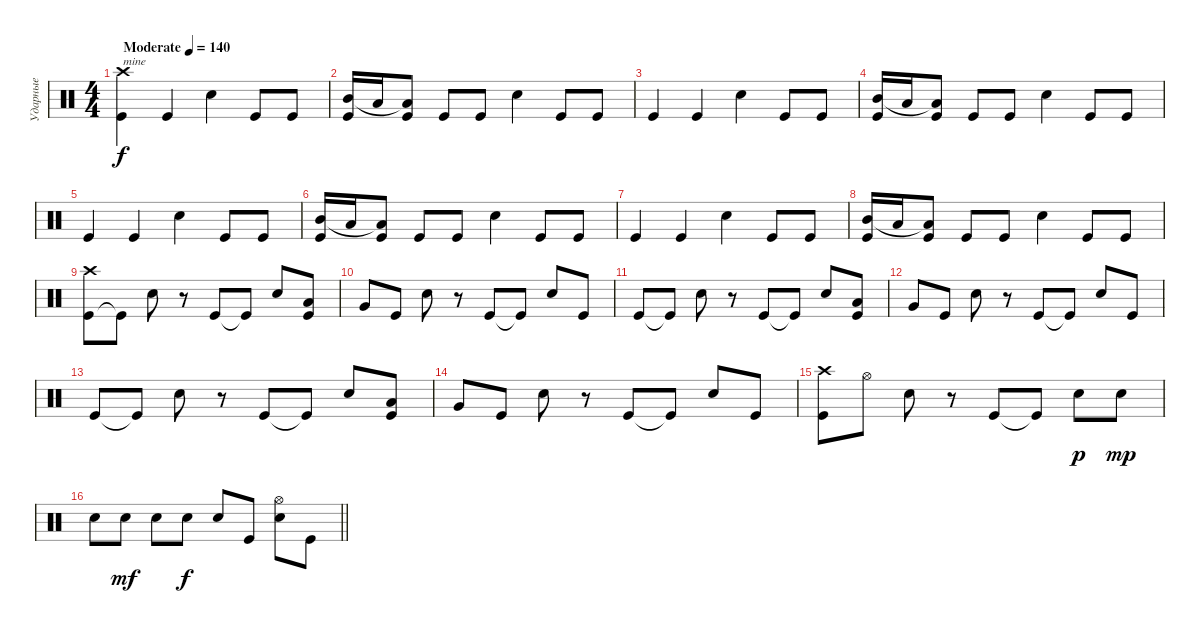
\track ("Ударные" "Ударные") {instrument percussion}
\staff {score}
\articulation defaults
\ts (4 4)
\tempo (140 "Moderate")
\clef neutral
\ks c
("Kick (hit)" "Crash high (hit)").4{txt "mine " dy f} "Kick (hit)".4 "Snare (hit) 2".4 "Kick (hit)".8 "Kick (hit)".8 |
("Kick (hit)" "Mid Tom (hit)").16 "Low Tom (hit)".16 ("Kick (hit)" "Low Tom (hit)"{t}).8 "Kick (hit)".8 "Kick (hit)".8 "Snare (hit) 2".4 "Kick (hit)".8 "Kick (hit)".8 |
"Kick (hit)".4 "Kick (hit)".4 "Snare (hit) 2".4 "Kick (hit)".8 "Kick (hit)".8 |
("Kick (hit)" "Mid Tom (hit)").16 "Low Tom (hit)".16 ("Kick (hit)" "Low Tom (hit)"{t}).8 "Kick (hit)".8 "Kick (hit)".8 "Snare (hit) 2".4 "Kick (hit)".8 "Kick (hit)".8 |
"Kick (hit)".4 "Kick (hit)".4 "Snare (hit) 2".4 "Kick (hit)".8 "Kick (hit)".8 |
("Kick (hit)" "Mid Tom (hit)").16 "Low Tom (hit)".16 ("Kick (hit)" "Low Tom (hit)"{t}).8 "Kick (hit)".8 "Kick (hit)".8 "Snare (hit) 2".4 "Kick (hit)".8 "Kick (hit)".8 |
"Kick (hit)".4 "Kick (hit)".4 "Snare (hit) 2".4 "Kick (hit)".8 "Kick (hit)".8 |
("Kick (hit)" "Mid Tom (hit)").16 "Low Tom (hit)".16 ("Kick (hit)" "Low Tom (hit)"{t}).8 "Kick (hit)".8 "Kick (hit)".8 "Snare (hit) 2".4 "Kick (hit)".8 "Kick (hit)".8 |
("Kick (hit)" "Crash high (hit)").8 "Kick (hit)"{t}.8 "Snare (hit) 2".8 r.8 "Kick (hit)".8 "Kick (hit)"{t}.8 "Snare (hit) 2".8 ("Kick (hit)" "Low Tom (hit)").8 |
"Very Low Tom (hit)".8 "Kick (hit)".8 "Snare (hit) 2".8 r.8 "Kick (hit)".8 "Kick (hit)"{t}.8 "Snare (hit) 2".8 "Kick (hit)".8 |
"Kick (hit)".8 "Kick (hit)"{t}.8 "Snare (hit) 2".8 r.8 "Kick (hit)".8 "Kick (hit)"{t}.8 "Snare (hit) 2".8 ("Kick (hit)" "Low Tom (hit)").8 |
"Very Low Tom (hit)".8 "Kick (hit)".8 "Snare (hit) 2".8 r.8 "Kick (hit)".8 "Kick (hit)"{t}.8 "Snare (hit) 2".8 "Kick (hit)".8 |
"Kick (hit)".8 "Kick (hit)"{t}.8 "Snare (hit) 2".8 r.8 "Kick (hit)".8 "Kick (hit)"{t}.8 "Snare (hit) 2".8 ("Kick (hit)" "Low Tom (hit)").8 |
"Very Low Tom (hit)".8 "Kick (hit)".8 "Snare (hit) 2".8 r.8 "Kick (hit)".8 "Kick (hit)"{t}.8 "Snare (hit) 2".8 "Kick (hit)".8 |
("Kick (hit)" "Crash high (hit)").8 "Hi-Hat (open)".8 "Snare (hit) 2".8 r.8 "Kick (hit)".8 "Kick (hit)"{t}.8 "Snare (hit) 2".8{dy p} "Snare (hit) 2".8{dy mp} |
\barLineRight lightlight "Snare (hit) 2".8 "Snare (hit) 2".8{dy mf} "Snare (hit) 2".8 "Snare (hit) 2".8{dy f} "Snare (hit) 2".8 "Kick (hit)".8
("Snare (hit) 2" "Hi-Hat (open)").8 "Kick (hit)".8
